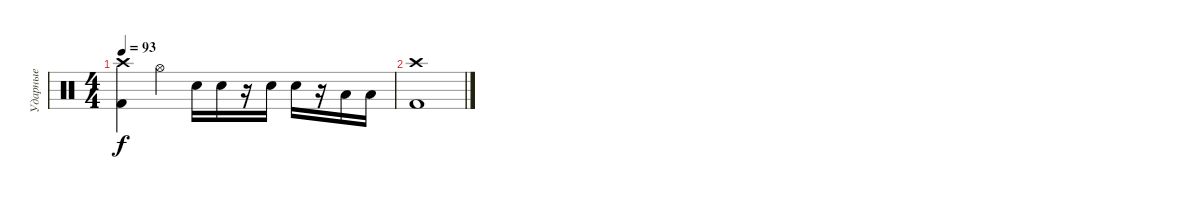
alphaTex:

\track ("Ударные" "Ударные") {instrument percussion}
\staff {score}
\articulation defaults
\ts (4 4)
\tempo 93
\clef neutral
\ks c
("Kick (hit) 2" "Crash high (hit)").4{dy f} "Hi-Hat (open)".4 "Electric Snare (hit)".16 "Electric Snare (hit)".16 r.16 "Electric Snare (hit)".16 "Electric Snare (hit)".16 r.16 "Low Tom (hit)".16 "Low Tom (hit)".16 |
("Kick (hit) 2" "Crash high (hit)").1
